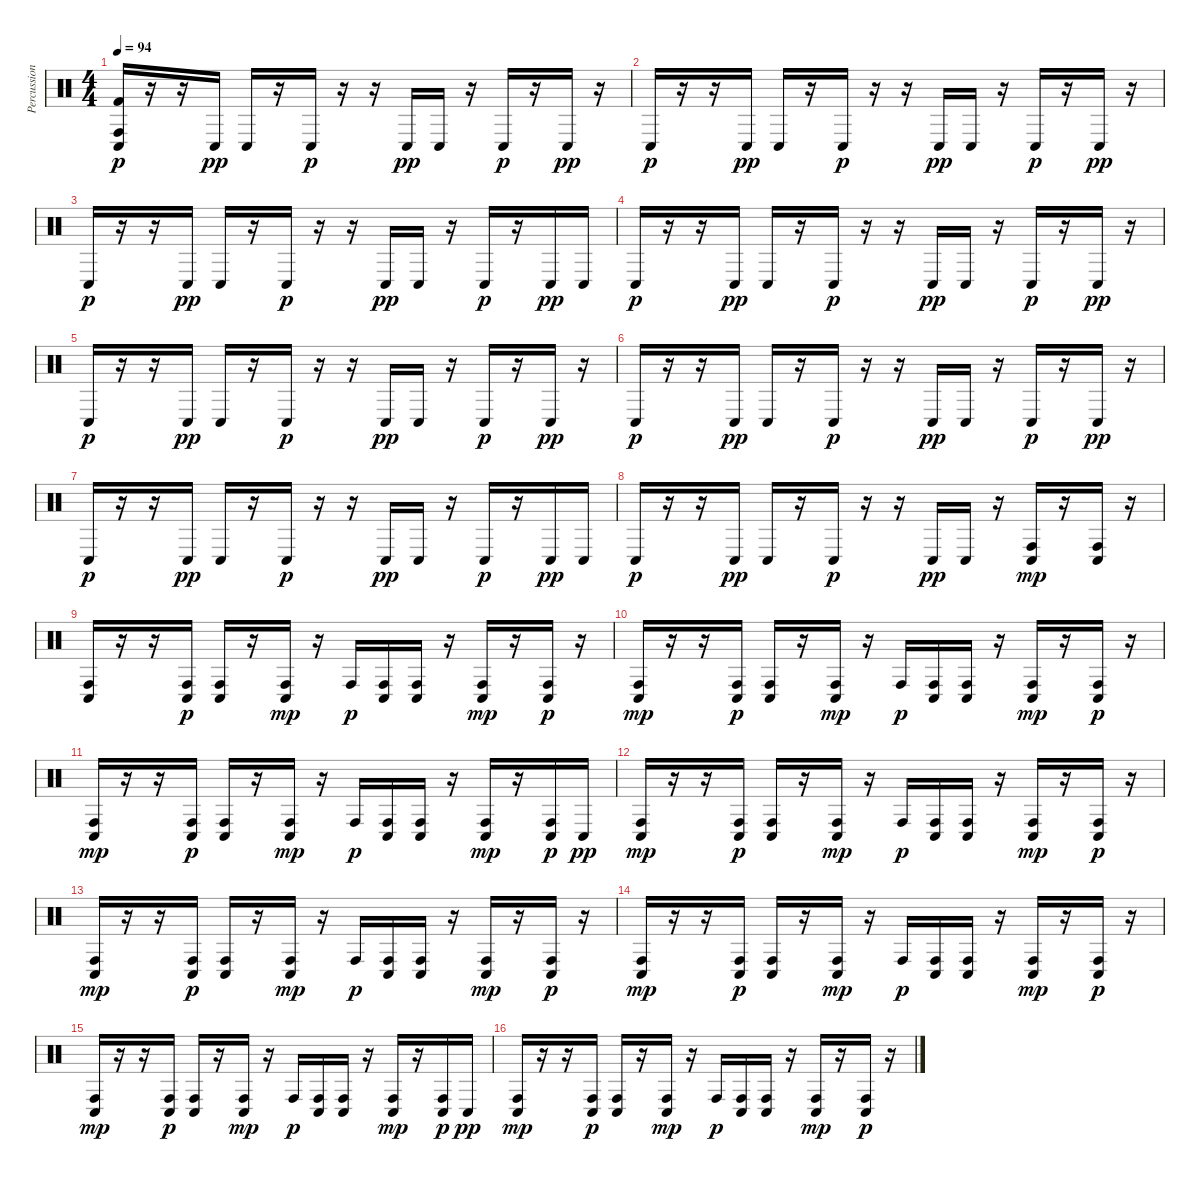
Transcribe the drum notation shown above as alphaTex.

\track ("Percussions" "Percussion") {instrument percussion}
\staff {score}
\articulation defaults
\ts (4 4)
\tempo 94
\clef neutral
\ks c
("Conga low (hit)" "Conga high (hit)" "Kick (hit) 2").16{dy p} r.16 r.16 "Conga low (hit)".16{dy pp} "Conga low (hit)".16 r.16 "Conga low (hit)".16{dy p} r.16 r.16 "Conga low (hit)".16{dy pp} "Conga low (hit)".16 r.16 "Conga low (hit)".16{dy p} r.16 "Conga low (hit)".16{dy pp} r.16 |
"Conga low (hit)".16{dy p} r.16 r.16 "Conga low (hit)".16{dy pp} "Conga low (hit)".16 r.16 "Conga low (hit)".16{dy p} r.16 r.16 "Conga low (hit)".16{dy pp} "Conga low (hit)".16 r.16 "Conga low (hit)".16{dy p} r.16 "Conga low (hit)".16{dy pp} r.16 |
"Conga low (hit)".16{dy p} r.16 r.16 "Conga low (hit)".16{dy pp} "Conga low (hit)".16 r.16 "Conga low (hit)".16{dy p} r.16 r.16 "Conga low (hit)".16{dy pp} "Conga low (hit)".16 r.16 "Conga low (hit)".16{dy p} r.16 "Conga low (hit)".16{dy pp} "Conga low (hit)".16 |
"Conga low (hit)".16{dy p} r.16 r.16 "Conga low (hit)".16{dy pp} "Conga low (hit)".16 r.16 "Conga low (hit)".16{dy p} r.16 r.16 "Conga low (hit)".16{dy pp} "Conga low (hit)".16 r.16 "Conga low (hit)".16{dy p} r.16 "Conga low (hit)".16{dy pp} r.16 |
"Conga low (hit)".16{dy p} r.16 r.16 "Conga low (hit)".16{dy pp} "Conga low (hit)".16 r.16 "Conga low (hit)".16{dy p} r.16 r.16 "Conga low (hit)".16{dy pp} "Conga low (hit)".16 r.16 "Conga low (hit)".16{dy p} r.16 "Conga low (hit)".16{dy pp} r.16 |
"Conga low (hit)".16{dy p} r.16 r.16 "Conga low (hit)".16{dy pp} "Conga low (hit)".16 r.16 "Conga low (hit)".16{dy p} r.16 r.16 "Conga low (hit)".16{dy pp} "Conga low (hit)".16 r.16 "Conga low (hit)".16{dy p} r.16 "Conga low (hit)".16{dy pp} r.16 |
"Conga low (hit)".16{dy p} r.16 r.16 "Conga low (hit)".16{dy pp} "Conga low (hit)".16 r.16 "Conga low (hit)".16{dy p} r.16 r.16 "Conga low (hit)".16{dy pp} "Conga low (hit)".16 r.16 "Conga low (hit)".16{dy p} r.16 "Conga low (hit)".16{dy pp} "Conga low (hit)".16 |
"Conga low (hit)".16{dy p} r.16 r.16 "Conga low (hit)".16{dy pp} "Conga low (hit)".16 r.16 "Conga low (hit)".16{dy p} r.16 r.16 "Conga low (hit)".16{dy pp} "Conga low (hit)".16 r.16 ("Conga low (hit)" "Conga high (hit)").16{dy mp} r.16 ("Conga low (hit)" "Conga high (hit)").16 r.16 |
("Conga low (hit)" "Conga high (hit)").16 r.16 r.16 ("Conga low (hit)" "Conga high (hit)").16{dy p} ("Conga low (hit)" "Conga high (hit)").16 r.16 ("Conga low (hit)" "Conga high (hit)").16{dy mp} r.16 "Conga high (hit)".16{dy p} ("Conga low (hit)" "Conga high (hit)").16 ("Conga low (hit)" "Conga high (hit)").16 r.16 ("Conga low (hit)" "Conga high (hit)").16{dy mp} r.16 ("Conga low (hit)" "Conga high (hit)").16{dy p} r.16 |
("Conga low (hit)" "Conga high (hit)").16{dy mp} r.16 r.16 ("Conga low (hit)" "Conga high (hit)").16{dy p} ("Conga low (hit)" "Conga high (hit)").16 r.16 ("Conga low (hit)" "Conga high (hit)").16{dy mp} r.16 "Conga high (hit)".16{dy p} ("Conga low (hit)" "Conga high (hit)").16 ("Conga low (hit)" "Conga high (hit)").16 r.16 ("Conga low (hit)" "Conga high (hit)").16{dy mp} r.16 ("Conga low (hit)" "Conga high (hit)").16{dy p} r.16 |
("Conga low (hit)" "Conga high (hit)").16{dy mp} r.16 r.16 ("Conga low (hit)" "Conga high (hit)").16{dy p} ("Conga low (hit)" "Conga high (hit)").16 r.16 ("Conga low (hit)" "Conga high (hit)").16{dy mp} r.16 "Conga high (hit)".16{dy p} ("Conga low (hit)" "Conga high (hit)").16 ("Conga low (hit)" "Conga high (hit)").16 r.16 ("Conga low (hit)" "Conga high (hit)").16{dy mp} r.16 ("Conga low (hit)" "Conga high (hit)").16{dy p} "Conga low (hit)".16{dy pp} |
("Conga low (hit)" "Conga high (hit)").16{dy mp} r.16 r.16 ("Conga low (hit)" "Conga high (hit)").16{dy p} ("Conga low (hit)" "Conga high (hit)").16 r.16 ("Conga low (hit)" "Conga high (hit)").16{dy mp} r.16 "Conga high (hit)".16{dy p} ("Conga low (hit)" "Conga high (hit)").16 ("Conga low (hit)" "Conga high (hit)").16 r.16 ("Conga low (hit)" "Conga high (hit)").16{dy mp} r.16 ("Conga low (hit)" "Conga high (hit)").16{dy p} r.16 |
("Conga low (hit)" "Conga high (hit)").16{dy mp} r.16 r.16 ("Conga low (hit)" "Conga high (hit)").16{dy p} ("Conga low (hit)" "Conga high (hit)").16 r.16 ("Conga low (hit)" "Conga high (hit)").16{dy mp} r.16 "Conga high (hit)".16{dy p} ("Conga low (hit)" "Conga high (hit)").16 ("Conga low (hit)" "Conga high (hit)").16 r.16 ("Conga low (hit)" "Conga high (hit)").16{dy mp} r.16 ("Conga low (hit)" "Conga high (hit)").16{dy p} r.16 |
("Conga low (hit)" "Conga high (hit)").16{dy mp} r.16 r.16 ("Conga low (hit)" "Conga high (hit)").16{dy p} ("Conga low (hit)" "Conga high (hit)").16 r.16 ("Conga low (hit)" "Conga high (hit)").16{dy mp} r.16 "Conga high (hit)".16{dy p} ("Conga low (hit)" "Conga high (hit)").16 ("Conga low (hit)" "Conga high (hit)").16 r.16 ("Conga low (hit)" "Conga high (hit)").16{dy mp} r.16 ("Conga low (hit)" "Conga high (hit)").16{dy p} r.16 |
("Conga low (hit)" "Conga high (hit)").16{dy mp} r.16 r.16 ("Conga low (hit)" "Conga high (hit)").16{dy p} ("Conga low (hit)" "Conga high (hit)").16 r.16 ("Conga low (hit)" "Conga high (hit)").16{dy mp} r.16 "Conga high (hit)".16{dy p} ("Conga low (hit)" "Conga high (hit)").16 ("Conga low (hit)" "Conga high (hit)").16 r.16 ("Conga low (hit)" "Conga high (hit)").16{dy mp} r.16 ("Conga low (hit)" "Conga high (hit)").16{dy p} "Conga low (hit)".16{dy pp} |
("Conga low (hit)" "Conga high (hit)").16{dy mp} r.16 r.16 ("Conga low (hit)" "Conga high (hit)").16{dy p} ("Conga low (hit)" "Conga high (hit)").16 r.16 ("Conga low (hit)" "Conga high (hit)").16{dy mp} r.16 "Conga high (hit)".16{dy p} ("Conga low (hit)" "Conga high (hit)").16 ("Conga low (hit)" "Conga high (hit)").16 r.16 ("Conga low (hit)" "Conga high (hit)").16{dy mp} r.16 ("Conga low (hit)" "Conga high (hit)").16{dy p} r.16
